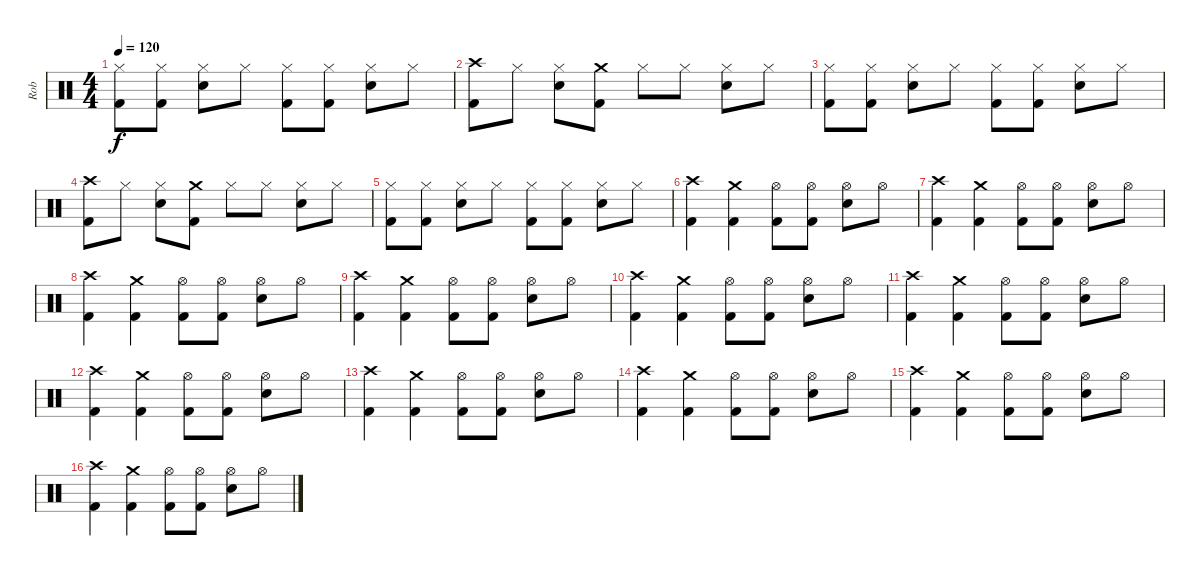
\track ("Rob" "Rob") {instrument percussion}
\staff {score}
\articulation defaults
\ts (4 4)
\tempo 120
\clef neutral
\ks c
("Hi-Hat (closed)" "Kick (hit) 2").8{dy f} ("Hi-Hat (closed)" "Kick (hit) 2").8 ("Hi-Hat (closed)" "Electric Snare (hit)").8 "Hi-Hat (closed)".8 ("Hi-Hat (closed)" "Kick (hit) 2").8 ("Hi-Hat (closed)" "Kick (hit) 2").8 ("Hi-Hat (closed)" "Electric Snare (hit)").8 "Hi-Hat (closed)".8 |
("Crash high (hit)" "Kick (hit) 2").8 "Hi-Hat (closed)".8 ("Hi-Hat (closed)" "Electric Snare (hit)").8 ("Crash medium (hit)" "Kick (hit) 2").8 "Hi-Hat (closed)".8 "Hi-Hat (closed)".8 ("Hi-Hat (closed)" "Electric Snare (hit)").8 "Hi-Hat (closed)".8 |
("Hi-Hat (closed)" "Kick (hit) 2").8 ("Hi-Hat (closed)" "Kick (hit) 2").8 ("Hi-Hat (closed)" "Electric Snare (hit)").8 "Hi-Hat (closed)".8 ("Hi-Hat (closed)" "Kick (hit) 2").8 ("Hi-Hat (closed)" "Kick (hit) 2").8 ("Hi-Hat (closed)" "Electric Snare (hit)").8 "Hi-Hat (closed)".8 |
("Crash high (hit)" "Kick (hit) 2").8 "Hi-Hat (closed)".8 ("Hi-Hat (closed)" "Electric Snare (hit)").8 ("Crash medium (hit)" "Kick (hit) 2").8 "Hi-Hat (closed)".8 "Hi-Hat (closed)".8 ("Hi-Hat (closed)" "Electric Snare (hit)").8 "Hi-Hat (closed)".8 |
("Hi-Hat (closed)" "Kick (hit) 2").8 ("Hi-Hat (closed)" "Kick (hit) 2").8 ("Hi-Hat (closed)" "Electric Snare (hit)").8 "Hi-Hat (closed)".8 ("Hi-Hat (closed)" "Kick (hit) 2").8 ("Hi-Hat (closed)" "Kick (hit) 2").8 ("Hi-Hat (closed)" "Electric Snare (hit)").8 "Hi-Hat (closed)".8 |
("Crash high (hit)" "Kick (hit) 2").4 ("Crash medium (hit)" "Kick (hit) 2").4 ("Hi-Hat (open)" "Kick (hit) 2").8 ("Hi-Hat (open)" "Kick (hit) 2").8 ("Hi-Hat (open)" "Snare (hit) 2").8 "Hi-Hat (open)".8 |
("Crash high (hit)" "Kick (hit) 2").4 ("Crash medium (hit)" "Kick (hit) 2").4 ("Hi-Hat (open)" "Kick (hit) 2").8 ("Hi-Hat (open)" "Kick (hit) 2").8 ("Hi-Hat (open)" "Snare (hit) 2").8 "Hi-Hat (open)".8 |
("Crash high (hit)" "Kick (hit) 2").4 ("Crash medium (hit)" "Kick (hit) 2").4 ("Hi-Hat (open)" "Kick (hit) 2").8 ("Hi-Hat (open)" "Kick (hit) 2").8 ("Hi-Hat (open)" "Snare (hit) 2").8 "Hi-Hat (open)".8 |
("Crash high (hit)" "Kick (hit) 2").4 ("Crash medium (hit)" "Kick (hit) 2").4 ("Hi-Hat (open)" "Kick (hit) 2").8 ("Hi-Hat (open)" "Kick (hit) 2").8 ("Hi-Hat (open)" "Snare (hit) 2").8 "Hi-Hat (open)".8 |
("Crash high (hit)" "Kick (hit) 2").4 ("Crash medium (hit)" "Kick (hit) 2").4 ("Hi-Hat (open)" "Kick (hit) 2").8 ("Hi-Hat (open)" "Kick (hit) 2").8 ("Hi-Hat (open)" "Snare (hit) 2").8 "Hi-Hat (open)".8 |
("Crash high (hit)" "Kick (hit) 2").4 ("Crash medium (hit)" "Kick (hit) 2").4 ("Hi-Hat (open)" "Kick (hit) 2").8 ("Hi-Hat (open)" "Kick (hit) 2").8 ("Hi-Hat (open)" "Snare (hit) 2").8 "Hi-Hat (open)".8 |
("Crash high (hit)" "Kick (hit) 2").4 ("Crash medium (hit)" "Kick (hit) 2").4 ("Hi-Hat (open)" "Kick (hit) 2").8 ("Hi-Hat (open)" "Kick (hit) 2").8 ("Hi-Hat (open)" "Snare (hit) 2").8 "Hi-Hat (open)".8 |
("Crash high (hit)" "Kick (hit) 2").4 ("Crash medium (hit)" "Kick (hit) 2").4 ("Hi-Hat (open)" "Kick (hit) 2").8 ("Hi-Hat (open)" "Kick (hit) 2").8 ("Hi-Hat (open)" "Snare (hit) 2").8 "Hi-Hat (open)".8 |
("Crash high (hit)" "Kick (hit) 2").4 ("Crash medium (hit)" "Kick (hit) 2").4 ("Hi-Hat (open)" "Kick (hit) 2").8 ("Hi-Hat (open)" "Kick (hit) 2").8 ("Hi-Hat (open)" "Snare (hit) 2").8 "Hi-Hat (open)".8 |
("Crash high (hit)" "Kick (hit) 2").4 ("Crash medium (hit)" "Kick (hit) 2").4 ("Hi-Hat (open)" "Kick (hit) 2").8 ("Hi-Hat (open)" "Kick (hit) 2").8 ("Hi-Hat (open)" "Snare (hit) 2").8 "Hi-Hat (open)".8 |
("Crash high (hit)" "Kick (hit) 2").4 ("Crash medium (hit)" "Kick (hit) 2").4 ("Hi-Hat (open)" "Kick (hit) 2").8 ("Hi-Hat (open)" "Kick (hit) 2").8 ("Hi-Hat (open)" "Snare (hit) 2").8 "Hi-Hat (open)".8
